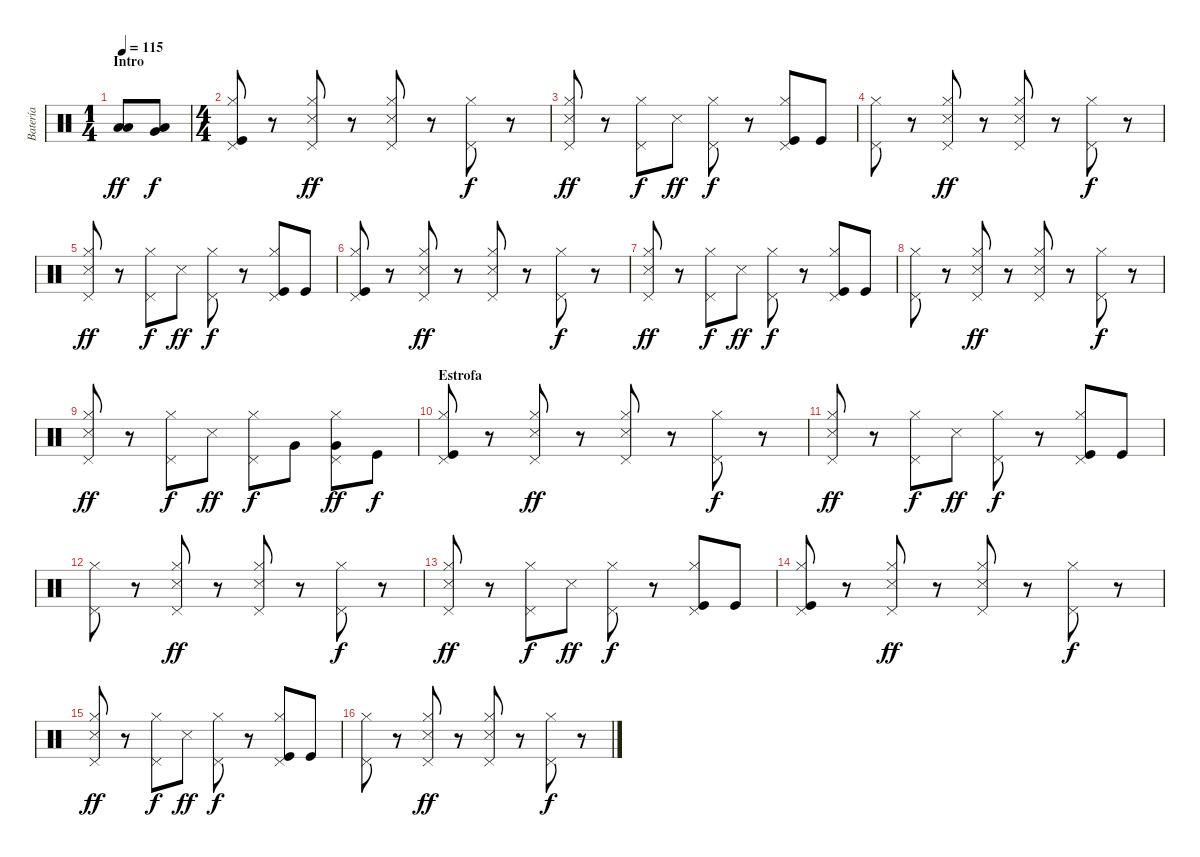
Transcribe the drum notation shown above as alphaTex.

\track ("Batería" "Batería") {instrument percussion}
\staff {score}
\articulation defaults
\ts (1 4)
\section ("" "Intro")
\tempo 115
\clef neutral
\ks c
("Low Tom (hit)" "Low Floor Tom (hit)").8{dy ff} ("Very Low Tom (hit)" "Low Floor Tom (hit)").8{dy f} |
\ts (4 4)
("Pedal Hi-Hat (hit)" "Hi-Hat (closed)" "Kick (hit)").8 r.8 ("Pedal Hi-Hat (hit)" "Hi-Hat (closed)" "Snare (side stick) 3").8{dy ff} r.8 ("Pedal Hi-Hat (hit)" "Hi-Hat (closed)" "Snare (side stick) 3").8 r.8 ("Pedal Hi-Hat (hit)" "Hi-Hat (closed)").8{dy f} r.8 |
("Pedal Hi-Hat (hit)" "Hi-Hat (closed)" "Snare (side stick) 3").8{dy ff} r.8 ("Pedal Hi-Hat (hit)" "Hi-Hat (closed)").8{dy f} "Snare (side stick) 3".8{dy ff} ("Pedal Hi-Hat (hit)" "Hi-Hat (closed)").8{dy f} r.8 ("Pedal Hi-Hat (hit)" "Hi-Hat (closed)" "Kick (hit)").8 "Kick (hit)".8 |
("Pedal Hi-Hat (hit)" "Hi-Hat (closed)").8 r.8 ("Pedal Hi-Hat (hit)" "Hi-Hat (closed)" "Snare (side stick) 3").8{dy ff} r.8 ("Pedal Hi-Hat (hit)" "Hi-Hat (closed)" "Snare (side stick) 3").8 r.8 ("Pedal Hi-Hat (hit)" "Hi-Hat (closed)").8{dy f} r.8 |
("Pedal Hi-Hat (hit)" "Hi-Hat (closed)" "Snare (side stick) 3").8{dy ff} r.8 ("Pedal Hi-Hat (hit)" "Hi-Hat (closed)").8{dy f} "Snare (side stick) 3".8{dy ff} ("Pedal Hi-Hat (hit)" "Hi-Hat (closed)").8{dy f} r.8 ("Pedal Hi-Hat (hit)" "Hi-Hat (closed)" "Kick (hit)").8 "Kick (hit)".8 |
("Pedal Hi-Hat (hit)" "Hi-Hat (closed)" "Kick (hit)").8 r.8 ("Pedal Hi-Hat (hit)" "Hi-Hat (closed)" "Snare (side stick) 3").8{dy ff} r.8 ("Pedal Hi-Hat (hit)" "Hi-Hat (closed)" "Snare (side stick) 3").8 r.8 ("Pedal Hi-Hat (hit)" "Hi-Hat (closed)").8{dy f} r.8 |
("Pedal Hi-Hat (hit)" "Hi-Hat (closed)" "Snare (side stick) 3").8{dy ff} r.8 ("Pedal Hi-Hat (hit)" "Hi-Hat (closed)").8{dy f} "Snare (side stick) 3".8{dy ff} ("Pedal Hi-Hat (hit)" "Hi-Hat (closed)").8{dy f} r.8 ("Pedal Hi-Hat (hit)" "Hi-Hat (closed)" "Kick (hit)").8 "Kick (hit)".8 |
("Pedal Hi-Hat (hit)" "Hi-Hat (closed)").8 r.8 ("Pedal Hi-Hat (hit)" "Hi-Hat (closed)" "Snare (side stick) 3").8{dy ff} r.8 ("Pedal Hi-Hat (hit)" "Hi-Hat (closed)" "Snare (side stick) 3").8 r.8 ("Pedal Hi-Hat (hit)" "Hi-Hat (closed)").8{dy f} r.8 |
("Pedal Hi-Hat (hit)" "Hi-Hat (closed)" "Snare (side stick) 3").8{dy ff} r.8 ("Pedal Hi-Hat (hit)" "Hi-Hat (closed)").8{dy f} "Snare (side stick) 3".8{dy ff} ("Pedal Hi-Hat (hit)" "Hi-Hat (closed)").8{dy f} "Very Low Tom (hit)".8 ("Pedal Hi-Hat (hit)" "Hi-Hat (closed)" "Very Low Tom (hit)").8{dy ff} "Kick (hit)".8{dy f} |
\section ("" "Estrofa")
("Pedal Hi-Hat (hit)" "Hi-Hat (closed)" "Kick (hit)").8 r.8 ("Pedal Hi-Hat (hit)" "Hi-Hat (closed)" "Snare (side stick) 3").8{dy ff} r.8 ("Pedal Hi-Hat (hit)" "Hi-Hat (closed)" "Snare (side stick) 3").8 r.8 ("Pedal Hi-Hat (hit)" "Hi-Hat (closed)").8{dy f} r.8 |
("Pedal Hi-Hat (hit)" "Hi-Hat (closed)" "Snare (side stick) 3").8{dy ff} r.8 ("Pedal Hi-Hat (hit)" "Hi-Hat (closed)").8{dy f} "Snare (side stick) 3".8{dy ff} ("Pedal Hi-Hat (hit)" "Hi-Hat (closed)").8{dy f} r.8 ("Pedal Hi-Hat (hit)" "Hi-Hat (closed)" "Kick (hit)").8 "Kick (hit)".8 |
("Pedal Hi-Hat (hit)" "Hi-Hat (closed)").8 r.8 ("Pedal Hi-Hat (hit)" "Hi-Hat (closed)" "Snare (side stick) 3").8{dy ff} r.8 ("Pedal Hi-Hat (hit)" "Hi-Hat (closed)" "Snare (side stick) 3").8 r.8 ("Pedal Hi-Hat (hit)" "Hi-Hat (closed)").8{dy f} r.8 |
("Pedal Hi-Hat (hit)" "Hi-Hat (closed)" "Snare (side stick) 3").8{dy ff} r.8 ("Pedal Hi-Hat (hit)" "Hi-Hat (closed)").8{dy f} "Snare (side stick) 3".8{dy ff} ("Pedal Hi-Hat (hit)" "Hi-Hat (closed)").8{dy f} r.8 ("Pedal Hi-Hat (hit)" "Hi-Hat (closed)" "Kick (hit)").8 "Kick (hit)".8 |
("Pedal Hi-Hat (hit)" "Hi-Hat (closed)" "Kick (hit)").8 r.8 ("Pedal Hi-Hat (hit)" "Hi-Hat (closed)" "Snare (side stick) 3").8{dy ff} r.8 ("Pedal Hi-Hat (hit)" "Hi-Hat (closed)" "Snare (side stick) 3").8 r.8 ("Pedal Hi-Hat (hit)" "Hi-Hat (closed)").8{dy f} r.8 |
("Pedal Hi-Hat (hit)" "Hi-Hat (closed)" "Snare (side stick) 3").8{dy ff} r.8 ("Pedal Hi-Hat (hit)" "Hi-Hat (closed)").8{dy f} "Snare (side stick) 3".8{dy ff} ("Pedal Hi-Hat (hit)" "Hi-Hat (closed)").8{dy f} r.8 ("Pedal Hi-Hat (hit)" "Hi-Hat (closed)" "Kick (hit)").8 "Kick (hit)".8 |
("Pedal Hi-Hat (hit)" "Hi-Hat (closed)").8 r.8 ("Pedal Hi-Hat (hit)" "Hi-Hat (closed)" "Snare (side stick) 3").8{dy ff} r.8 ("Pedal Hi-Hat (hit)" "Hi-Hat (closed)" "Snare (side stick) 3").8 r.8 ("Pedal Hi-Hat (hit)" "Hi-Hat (closed)").8{dy f} r.8
